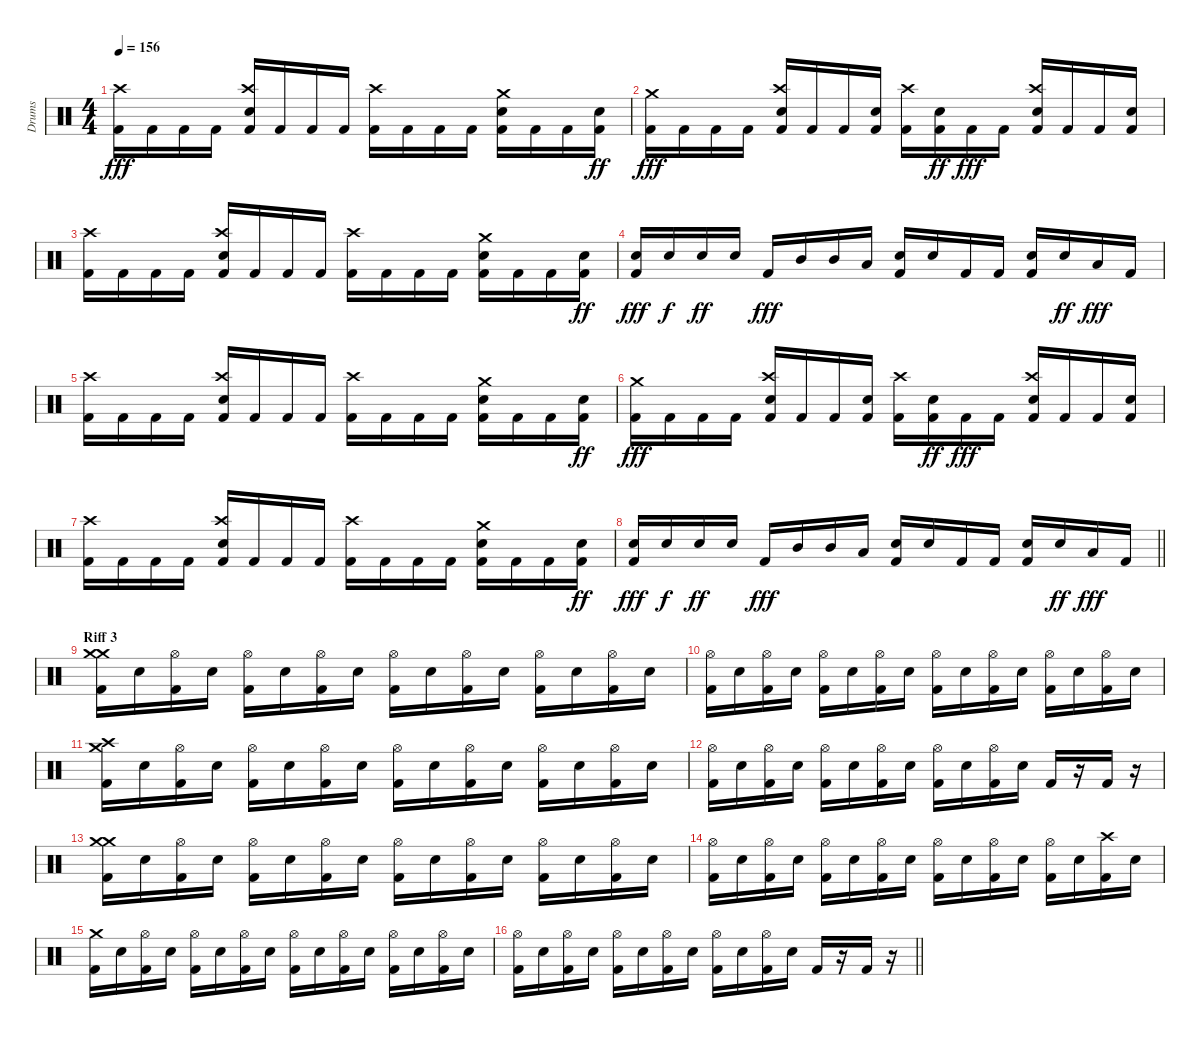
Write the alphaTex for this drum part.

\track ("Drums" "Drums") {instrument percussion}
\staff {score}
\articulation defaults
\ts (4 4)
\tempo 156
\clef neutral
\ks c
("Kick (hit) 2" "Crash high (hit)").16{dy fff} "Kick (hit) 2".16 "Kick (hit) 2".16 "Kick (hit) 2".16 ("Kick (hit) 2" "Snare (hit) 2" "Crash high (hit)").16 "Kick (hit) 2".16 "Kick (hit) 2".16 "Kick (hit) 2".16 ("Kick (hit) 2" "Crash high (hit)").16 "Kick (hit) 2".16 "Kick (hit) 2".16 "Kick (hit) 2".16 ("Kick (hit) 2" "Snare (hit) 2" "Crash medium (hit)").16 "Kick (hit) 2".16 "Kick (hit) 2".16 ("Kick (hit) 2" "Snare (hit) 2").16{dy ff} |
("Kick (hit) 2" "Crash medium (hit)").16{dy fff} "Kick (hit) 2".16 "Kick (hit) 2".16 "Kick (hit) 2".16 ("Kick (hit) 2" "Snare (hit) 2" "Crash high (hit)").16 "Kick (hit) 2".16 "Kick (hit) 2".16 ("Kick (hit) 2" "Snare (hit) 2").16 ("Kick (hit) 2" "Crash high (hit)").16 ("Kick (hit) 2" "Snare (hit) 2").16{dy ff} "Kick (hit) 2".16{dy fff} "Kick (hit) 2".16 ("Kick (hit) 2" "Snare (hit) 2" "Crash high (hit)").16 "Kick (hit) 2".16 "Kick (hit) 2".16 ("Kick (hit) 2" "Snare (hit) 2").16 |
("Kick (hit) 2" "Crash high (hit)").16 "Kick (hit) 2".16 "Kick (hit) 2".16 "Kick (hit) 2".16 ("Kick (hit) 2" "Snare (hit) 2" "Crash high (hit)").16 "Kick (hit) 2".16 "Kick (hit) 2".16 "Kick (hit) 2".16 ("Kick (hit) 2" "Crash high (hit)").16 "Kick (hit) 2".16 "Kick (hit) 2".16 "Kick (hit) 2".16 ("Kick (hit) 2" "Snare (hit) 2" "Crash medium (hit)").16 "Kick (hit) 2".16 "Kick (hit) 2".16 ("Kick (hit) 2" "Snare (hit) 2").16{dy ff} |
("Kick (hit) 2" "Snare (hit) 2").16{dy fff} "Snare (hit) 2".16{dy f} "Snare (hit) 2".16{dy ff} "Snare (hit) 2".16 "Kick (hit) 2".16{dy fff} "Mid Tom (hit)".16 "Mid Tom (hit)".16 "Low Tom (hit)".16 ("Kick (hit) 2" "Snare (hit) 2").16 "Snare (hit) 2".16 "Kick (hit) 2".16 "Kick (hit) 2".16 ("Kick (hit) 2" "Snare (hit) 2").16 "Snare (hit) 2".16{dy ff} "Low Tom (hit)".16{dy fff} "Kick (hit) 2".16 |
("Kick (hit) 2" "Crash high (hit)").16 "Kick (hit) 2".16 "Kick (hit) 2".16 "Kick (hit) 2".16 ("Kick (hit) 2" "Snare (hit) 2" "Crash high (hit)").16 "Kick (hit) 2".16 "Kick (hit) 2".16 "Kick (hit) 2".16 ("Kick (hit) 2" "Crash high (hit)").16 "Kick (hit) 2".16 "Kick (hit) 2".16 "Kick (hit) 2".16 ("Kick (hit) 2" "Snare (hit) 2" "Crash medium (hit)").16 "Kick (hit) 2".16 "Kick (hit) 2".16 ("Kick (hit) 2" "Snare (hit) 2").16{dy ff} |
("Kick (hit) 2" "Crash medium (hit)").16{dy fff} "Kick (hit) 2".16 "Kick (hit) 2".16 "Kick (hit) 2".16 ("Kick (hit) 2" "Snare (hit) 2" "Crash high (hit)").16 "Kick (hit) 2".16 "Kick (hit) 2".16 ("Kick (hit) 2" "Snare (hit) 2").16 ("Kick (hit) 2" "Crash high (hit)").16 ("Kick (hit) 2" "Snare (hit) 2").16{dy ff} "Kick (hit) 2".16{dy fff} "Kick (hit) 2".16 ("Kick (hit) 2" "Snare (hit) 2" "Crash high (hit)").16 "Kick (hit) 2".16 "Kick (hit) 2".16 ("Kick (hit) 2" "Snare (hit) 2").16 |
("Kick (hit) 2" "Crash high (hit)").16 "Kick (hit) 2".16 "Kick (hit) 2".16 "Kick (hit) 2".16 ("Kick (hit) 2" "Snare (hit) 2" "Crash high (hit)").16 "Kick (hit) 2".16 "Kick (hit) 2".16 "Kick (hit) 2".16 ("Kick (hit) 2" "Crash high (hit)").16 "Kick (hit) 2".16 "Kick (hit) 2".16 "Kick (hit) 2".16 ("Kick (hit) 2" "Snare (hit) 2" "Crash medium (hit)").16 "Kick (hit) 2".16 "Kick (hit) 2".16 ("Kick (hit) 2" "Snare (hit) 2").16{dy ff} |
\barLineRight lightlight
("Kick (hit) 2" "Snare (hit) 2").16{dy fff} "Snare (hit) 2".16{dy f} "Snare (hit) 2".16{dy ff} "Snare (hit) 2".16 "Kick (hit) 2".16{dy fff} "Mid Tom (hit)".16 "Mid Tom (hit)".16 "Low Tom (hit)".16 ("Kick (hit) 2" "Snare (hit) 2").16 "Snare (hit) 2".16 "Kick (hit) 2".16 "Kick (hit) 2".16 ("Kick (hit) 2" "Snare (hit) 2").16 "Snare (hit) 2".16{dy ff} "Low Tom (hit)".16{dy fff} "Kick (hit) 2".16 |
\section ("" "Riff 3")
("Kick (hit) 2" "Crash medium (hit)" "Crash medium (hit)").16 "Snare (hit) 2".16 ("Kick (hit) 2" "Hi-Hat (open)").16 "Snare (hit) 2".16 ("Kick (hit) 2" "Hi-Hat (open)").16 "Snare (hit) 2".16 ("Kick (hit) 2" "Hi-Hat (open)").16 "Snare (hit) 2".16 ("Kick (hit) 2" "Hi-Hat (open)").16 "Snare (hit) 2".16 ("Kick (hit) 2" "Hi-Hat (open)").16 "Snare (hit) 2".16 ("Kick (hit) 2" "Hi-Hat (open)").16 "Snare (hit) 2".16 ("Kick (hit) 2" "Hi-Hat (open)").16 "Snare (hit) 2".16 |
("Kick (hit) 2" "Hi-Hat (open)").16 "Snare (hit) 2".16 ("Kick (hit) 2" "Hi-Hat (open)").16 "Snare (hit) 2".16 ("Kick (hit) 2" "Hi-Hat (open)").16 "Snare (hit) 2".16 ("Kick (hit) 2" "Hi-Hat (open)").16 "Snare (hit) 2".16 ("Kick (hit) 2" "Hi-Hat (open)").16 "Snare (hit) 2".16 ("Kick (hit) 2" "Hi-Hat (open)").16 "Snare (hit) 2".16 ("Kick (hit) 2" "Hi-Hat (open)").16 "Snare (hit) 2".16 ("Kick (hit) 2" "Hi-Hat (open)").16 "Snare (hit) 2".16 |
("Kick (hit) 2" "Crash high (hit)" "Crash medium (hit)").16 "Snare (hit) 2".16 ("Kick (hit) 2" "Hi-Hat (open)").16 "Snare (hit) 2".16 ("Kick (hit) 2" "Hi-Hat (open)").16 "Snare (hit) 2".16 ("Kick (hit) 2" "Hi-Hat (open)").16 "Snare (hit) 2".16 ("Kick (hit) 2" "Hi-Hat (open)").16 "Snare (hit) 2".16 ("Kick (hit) 2" "Hi-Hat (open)").16 "Snare (hit) 2".16 ("Kick (hit) 2" "Hi-Hat (open)").16 "Snare (hit) 2".16 ("Kick (hit) 2" "Hi-Hat (open)").16 "Snare (hit) 2".16 |
("Kick (hit) 2" "Hi-Hat (open)").16 "Snare (hit) 2".16 ("Kick (hit) 2" "Hi-Hat (open)").16 "Snare (hit) 2".16 ("Kick (hit) 2" "Hi-Hat (open)").16 "Snare (hit) 2".16 ("Kick (hit) 2" "Hi-Hat (open)").16 "Snare (hit) 2".16 ("Kick (hit) 2" "Hi-Hat (open)").16 "Snare (hit) 2".16 ("Kick (hit) 2" "Hi-Hat (open)").16 "Snare (hit) 2".16 "Kick (hit) 2".16 r.16 "Kick (hit) 2".16 r.16 |
("Kick (hit) 2" "Crash medium (hit)" "Crash medium (hit)").16 "Snare (hit) 2".16 ("Kick (hit) 2" "Hi-Hat (open)").16 "Snare (hit) 2".16 ("Kick (hit) 2" "Hi-Hat (open)").16 "Snare (hit) 2".16 ("Kick (hit) 2" "Hi-Hat (open)").16 "Snare (hit) 2".16 ("Kick (hit) 2" "Hi-Hat (open)").16 "Snare (hit) 2".16 ("Kick (hit) 2" "Hi-Hat (open)").16 "Snare (hit) 2".16 ("Kick (hit) 2" "Hi-Hat (open)").16 "Snare (hit) 2".16 ("Kick (hit) 2" "Hi-Hat (open)").16 "Snare (hit) 2".16 |
("Kick (hit) 2" "Hi-Hat (open)").16 "Snare (hit) 2".16 ("Kick (hit) 2" "Hi-Hat (open)").16 "Snare (hit) 2".16 ("Kick (hit) 2" "Hi-Hat (open)").16 "Snare (hit) 2".16 ("Kick (hit) 2" "Hi-Hat (open)").16 "Snare (hit) 2".16 ("Kick (hit) 2" "Hi-Hat (open)").16 "Snare (hit) 2".16 ("Kick (hit) 2" "Hi-Hat (open)").16 "Snare (hit) 2".16 ("Kick (hit) 2" "Hi-Hat (open)").16 "Snare (hit) 2".16 ("Kick (hit) 2" "Crash high (hit)").16 "Snare (hit) 2".16 |
("Kick (hit) 2" "Crash medium (hit)").16 "Snare (hit) 2".16 ("Kick (hit) 2" "Hi-Hat (open)").16 "Snare (hit) 2".16 ("Kick (hit) 2" "Hi-Hat (open)").16 "Snare (hit) 2".16 ("Kick (hit) 2" "Hi-Hat (open)").16 "Snare (hit) 2".16 ("Kick (hit) 2" "Hi-Hat (open)").16 "Snare (hit) 2".16 ("Kick (hit) 2" "Hi-Hat (open)").16 "Snare (hit) 2".16 ("Kick (hit) 2" "Hi-Hat (open)").16 "Snare (hit) 2".16 ("Kick (hit) 2" "Hi-Hat (open)").16 "Snare (hit) 2".16 |
\barLineRight lightlight
("Kick (hit) 2" "Hi-Hat (open)").16 "Snare (hit) 2".16 ("Kick (hit) 2" "Hi-Hat (open)").16 "Snare (hit) 2".16 ("Kick (hit) 2" "Hi-Hat (open)").16 "Snare (hit) 2".16 ("Kick (hit) 2" "Hi-Hat (open)").16 "Snare (hit) 2".16 ("Kick (hit) 2" "Hi-Hat (open)").16 "Snare (hit) 2".16 ("Kick (hit) 2" "Hi-Hat (open)").16 "Snare (hit) 2".16 "Kick (hit) 2".16 r.16 "Kick (hit) 2".16 r.16
